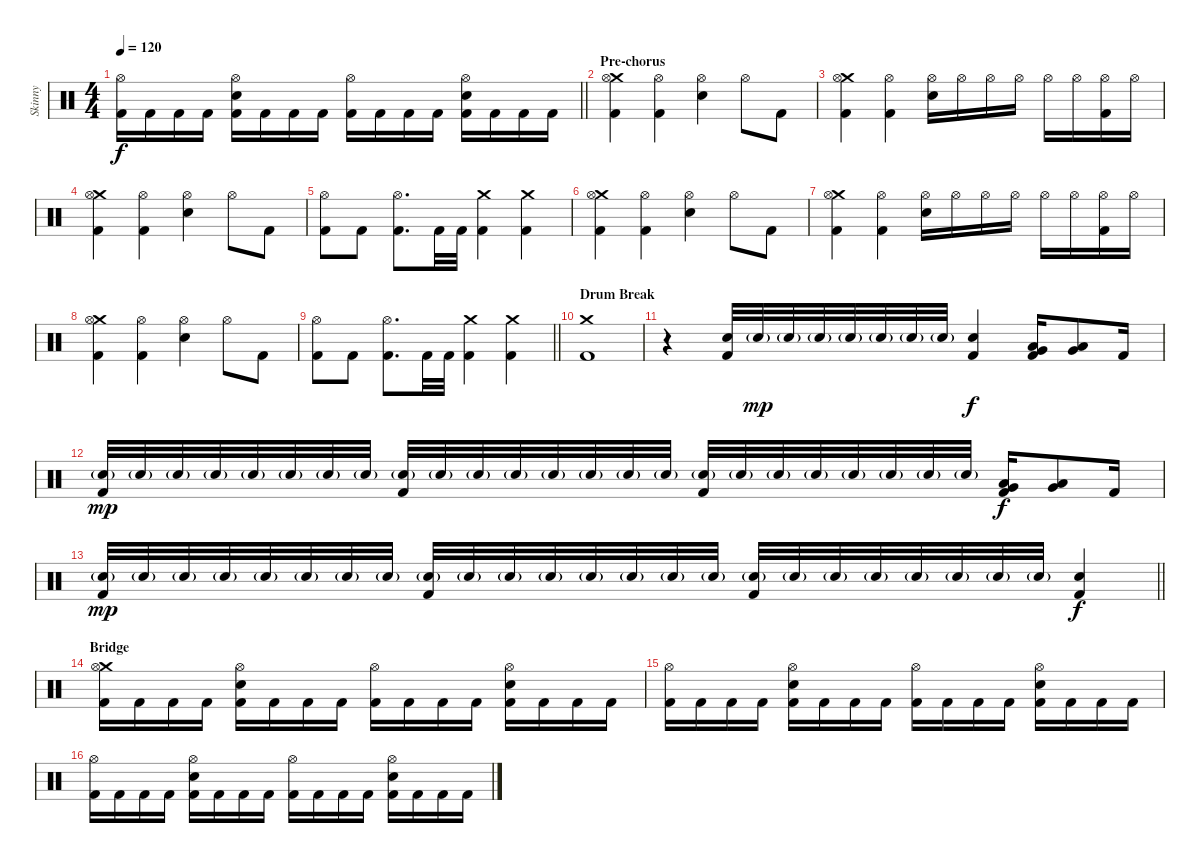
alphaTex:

\track ("Skinny" "Skinny") {instrument percussion}
\staff {score}
\articulation defaults
\ts (4 4)
\tempo 120
\clef neutral
\barLineRight lightlight
\ks c
("Hi-Hat (open)" "Kick (hit) 2").16{dy f} "Kick (hit) 2".16 "Kick (hit) 2".16 "Kick (hit) 2".16 ("Hi-Hat (open)" "Electric Snare (hit)" "Kick (hit) 2").16 "Kick (hit) 2".16 "Kick (hit) 2".16 "Kick (hit) 2".16 ("Hi-Hat (open)" "Kick (hit) 2").16 "Kick (hit) 2".16 "Kick (hit) 2".16 "Kick (hit) 2".16 ("Hi-Hat (open)" "Electric Snare (hit)" "Kick (hit) 2").16 "Kick (hit) 2".16 "Kick (hit) 2".16 "Kick (hit) 2".16 |
\section ("" "Pre-chorus")
("Crash medium (hit)" "Hi-Hat (open)" "Kick (hit) 2").4 ("Hi-Hat (open)" "Kick (hit) 2").4 ("Hi-Hat (open)" "Electric Snare (hit)").4 "Hi-Hat (open)".8 "Kick (hit) 2".8 |
("Crash medium (hit)" "Hi-Hat (open)" "Kick (hit) 2").4 ("Hi-Hat (open)" "Kick (hit) 2").4 ("Hi-Hat (open)" "Electric Snare (hit)").16 "Hi-Hat (open)".16 "Hi-Hat (open)".16 "Hi-Hat (open)".16 "Hi-Hat (open)".16 "Hi-Hat (open)".16 ("Hi-Hat (open)" "Kick (hit) 2").16 "Hi-Hat (open)".16 |
("Crash medium (hit)" "Hi-Hat (open)" "Kick (hit) 2").4 ("Hi-Hat (open)" "Kick (hit) 2").4 ("Hi-Hat (open)" "Electric Snare (hit)").4 "Hi-Hat (open)".8 "Kick (hit) 2".8 |
("Hi-Hat (open)" "Kick (hit) 2").8 "Kick (hit) 2".8 ("Hi-Hat (open)" "Kick (hit) 2").8{d} "Kick (hit) 2".32 "Kick (hit) 2".32 ("Crash medium (hit)" "Kick (hit) 2").4 ("Crash medium (hit)" "Kick (hit) 2").4 |
("Crash medium (hit)" "Hi-Hat (open)" "Kick (hit) 2").4 ("Hi-Hat (open)" "Kick (hit) 2").4 ("Hi-Hat (open)" "Electric Snare (hit)").4 "Hi-Hat (open)".8 "Kick (hit) 2".8 |
("Crash medium (hit)" "Hi-Hat (open)" "Kick (hit) 2").4 ("Hi-Hat (open)" "Kick (hit) 2").4 ("Hi-Hat (open)" "Electric Snare (hit)").16 "Hi-Hat (open)".16 "Hi-Hat (open)".16 "Hi-Hat (open)".16 "Hi-Hat (open)".16 "Hi-Hat (open)".16 ("Hi-Hat (open)" "Kick (hit) 2").16 "Hi-Hat (open)".16 |
("Crash medium (hit)" "Hi-Hat (open)" "Kick (hit) 2").4 ("Hi-Hat (open)" "Kick (hit) 2").4 ("Hi-Hat (open)" "Electric Snare (hit)").4 "Hi-Hat (open)".8 "Kick (hit) 2".8 |
\barLineRight lightlight
("Hi-Hat (open)" "Kick (hit) 2").8 "Kick (hit) 2".8 ("Hi-Hat (open)" "Kick (hit) 2").8{d} "Kick (hit) 2".32 "Kick (hit) 2".32 ("Crash medium (hit)" "Kick (hit) 2").4 ("Crash medium (hit)" "Kick (hit) 2").4 |
\section ("" "Drum Break")
("Crash medium (hit)" "Kick (hit) 2").1 |
r.4 ("Electric Snare (hit)" "Kick (hit) 2").32 "Electric Snare (hit)"{g}.32{dy mp} "Electric Snare (hit)"{g}.32 "Electric Snare (hit)"{g}.32 "Electric Snare (hit)"{g}.32 "Electric Snare (hit)"{g}.32 "Electric Snare (hit)"{g}.32 "Electric Snare (hit)"{g}.32 ("Electric Snare (hit)" "Kick (hit) 2").4{dy f} ("Low Tom (hit)" "Very Low Tom (hit)" "Kick (hit) 2").16 ("Low Tom (hit)" "Very Low Tom (hit)").8 "Kick (hit) 2".16 |
("Electric Snare (hit)"{g} "Kick (hit) 2").32{dy mp} "Electric Snare (hit)"{g}.32 "Electric Snare (hit)"{g}.32 "Electric Snare (hit)"{g}.32 "Electric Snare (hit)"{g}.32 "Electric Snare (hit)"{g}.32 "Electric Snare (hit)"{g}.32 "Electric Snare (hit)"{g}.32 ("Electric Snare (hit)"{g} "Kick (hit) 2").32 "Electric Snare (hit)"{g}.32 "Electric Snare (hit)"{g}.32 "Electric Snare (hit)"{g}.32 "Electric Snare (hit)"{g}.32 "Electric Snare (hit)"{g}.32 "Electric Snare (hit)"{g}.32 "Electric Snare (hit)"{g}.32 ("Electric Snare (hit)"{g} "Kick (hit) 2").32 "Electric Snare (hit)"{g}.32 "Electric Snare (hit)"{g}.32 "Electric Snare (hit)"{g}.32 "Electric Snare (hit)"{g}.32 "Electric Snare (hit)"{g}.32 "Electric Snare (hit)"{g}.32 "Electric Snare (hit)"{g}.32 ("Low Tom (hit)" "Very Low Tom (hit)" "Kick (hit) 2").16{dy f} ("Low Tom (hit)" "Very Low Tom (hit)").8 "Kick (hit) 2".16 |
\barLineRight lightlight
("Electric Snare (hit)"{g} "Kick (hit) 2").32{dy mp} "Electric Snare (hit)"{g}.32 "Electric Snare (hit)"{g}.32 "Electric Snare (hit)"{g}.32 "Electric Snare (hit)"{g}.32 "Electric Snare (hit)"{g}.32 "Electric Snare (hit)"{g}.32 "Electric Snare (hit)"{g}.32 ("Electric Snare (hit)"{g} "Kick (hit) 2").32 "Electric Snare (hit)"{g}.32 "Electric Snare (hit)"{g}.32 "Electric Snare (hit)"{g}.32 "Electric Snare (hit)"{g}.32 "Electric Snare (hit)"{g}.32 "Electric Snare (hit)"{g}.32 "Electric Snare (hit)"{g}.32 ("Electric Snare (hit)"{g} "Kick (hit) 2").32 "Electric Snare (hit)"{g}.32 "Electric Snare (hit)"{g}.32 "Electric Snare (hit)"{g}.32 "Electric Snare (hit)"{g}.32 "Electric Snare (hit)"{g}.32 "Electric Snare (hit)"{g}.32 "Electric Snare (hit)"{g}.32 ("Electric Snare (hit)" "Kick (hit) 2").4{dy f} |
\section ("" "Bridge")
("Crash medium (hit)" "Hi-Hat (open)" "Kick (hit) 2").16 "Kick (hit) 2".16 "Kick (hit) 2".16 "Kick (hit) 2".16 ("Hi-Hat (open)" "Electric Snare (hit)" "Kick (hit) 2").16 "Kick (hit) 2".16 "Kick (hit) 2".16 "Kick (hit) 2".16 ("Hi-Hat (open)" "Kick (hit) 2").16 "Kick (hit) 2".16 "Kick (hit) 2".16 "Kick (hit) 2".16 ("Hi-Hat (open)" "Electric Snare (hit)" "Kick (hit) 2").16 "Kick (hit) 2".16 "Kick (hit) 2".16 "Kick (hit) 2".16 |
("Hi-Hat (open)" "Kick (hit) 2").16 "Kick (hit) 2".16 "Kick (hit) 2".16 "Kick (hit) 2".16 ("Hi-Hat (open)" "Electric Snare (hit)" "Kick (hit) 2").16 "Kick (hit) 2".16 "Kick (hit) 2".16 "Kick (hit) 2".16 ("Hi-Hat (open)" "Kick (hit) 2").16 "Kick (hit) 2".16 "Kick (hit) 2".16 "Kick (hit) 2".16 ("Hi-Hat (open)" "Electric Snare (hit)" "Kick (hit) 2").16 "Kick (hit) 2".16 "Kick (hit) 2".16 "Kick (hit) 2".16 |
("Hi-Hat (open)" "Kick (hit) 2").16 "Kick (hit) 2".16 "Kick (hit) 2".16 "Kick (hit) 2".16 ("Hi-Hat (open)" "Electric Snare (hit)" "Kick (hit) 2").16 "Kick (hit) 2".16 "Kick (hit) 2".16 "Kick (hit) 2".16 ("Hi-Hat (open)" "Kick (hit) 2").16 "Kick (hit) 2".16 "Kick (hit) 2".16 "Kick (hit) 2".16 ("Hi-Hat (open)" "Electric Snare (hit)" "Kick (hit) 2").16 "Kick (hit) 2".16 "Kick (hit) 2".16 "Kick (hit) 2".16
